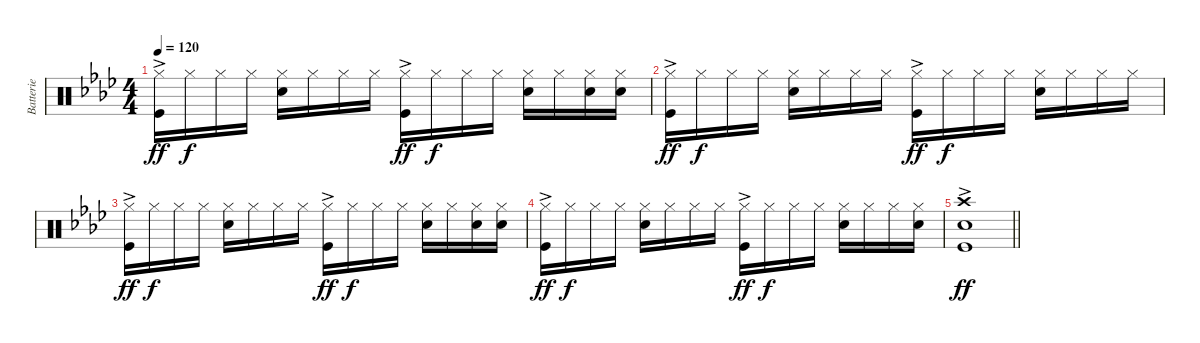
\track ("Batterie" "Batterie") {instrument percussion}
\staff {score}
\articulation defaults
\ts (4 4)
\tempo 120
\clef neutral
\ks fminor
("Hi-Hat (closed)" "Kick (hit)"{ac}).16{dy ff} "Hi-Hat (closed)".16{dy f} "Hi-Hat (closed)".16 "Hi-Hat (closed)".16 ("Hi-Hat (closed)" "Snare (hit) 2").16 "Hi-Hat (closed)".16 "Hi-Hat (closed)".16 "Hi-Hat (closed)".16 ("Hi-Hat (closed)" "Kick (hit)"{ac}).16{dy ff} "Hi-Hat (closed)".16{dy f} "Hi-Hat (closed)".16 "Hi-Hat (closed)".16 ("Hi-Hat (closed)" "Snare (hit) 2").16 "Hi-Hat (closed)".16 ("Hi-Hat (closed)" "Snare (hit) 2").16 ("Hi-Hat (closed)" "Snare (hit) 2").16 |
("Hi-Hat (closed)" "Kick (hit)"{ac}).16{dy ff} "Hi-Hat (closed)".16{dy f} "Hi-Hat (closed)".16 "Hi-Hat (closed)".16 ("Hi-Hat (closed)" "Snare (hit) 2").16 "Hi-Hat (closed)".16 "Hi-Hat (closed)".16 "Hi-Hat (closed)".16 ("Hi-Hat (closed)" "Kick (hit)"{ac}).16{dy ff} "Hi-Hat (closed)".16{dy f} "Hi-Hat (closed)".16 "Hi-Hat (closed)".16 ("Hi-Hat (closed)" "Snare (hit) 2").16 "Hi-Hat (closed)".16 "Hi-Hat (closed)".16 "Hi-Hat (closed)".16 |
("Hi-Hat (closed)" "Kick (hit)"{ac}).16{dy ff} "Hi-Hat (closed)".16{dy f} "Hi-Hat (closed)".16 "Hi-Hat (closed)".16 ("Hi-Hat (closed)" "Snare (hit) 2").16 "Hi-Hat (closed)".16 "Hi-Hat (closed)".16 "Hi-Hat (closed)".16 ("Hi-Hat (closed)" "Kick (hit)"{ac}).16{dy ff} "Hi-Hat (closed)".16{dy f} "Hi-Hat (closed)".16 "Hi-Hat (closed)".16 ("Hi-Hat (closed)" "Snare (hit) 2").16 "Hi-Hat (closed)".16 ("Hi-Hat (closed)" "Snare (hit) 2").16 ("Hi-Hat (closed)" "Snare (hit) 2").16 |
("Hi-Hat (closed)" "Kick (hit)"{ac}).16{dy ff} "Hi-Hat (closed)".16{dy f} "Hi-Hat (closed)".16 "Hi-Hat (closed)".16 ("Hi-Hat (closed)" "Snare (hit) 2").16 "Hi-Hat (closed)".16 "Hi-Hat (closed)".16 "Hi-Hat (closed)".16 ("Hi-Hat (closed)" "Kick (hit)"{ac}).16{dy ff} "Hi-Hat (closed)".16{dy f} "Hi-Hat (closed)".16 "Hi-Hat (closed)".16 ("Hi-Hat (closed)" "Snare (hit) 2").16 "Hi-Hat (closed)".16 "Hi-Hat (closed)".16 ("Hi-Hat (closed)" "Snare (hit) 2").16 |
\barLineRight lightlight
("Crash high (hit)" "Snare (hit) 2" "Kick (hit)"{ac}).1{dy ff}
